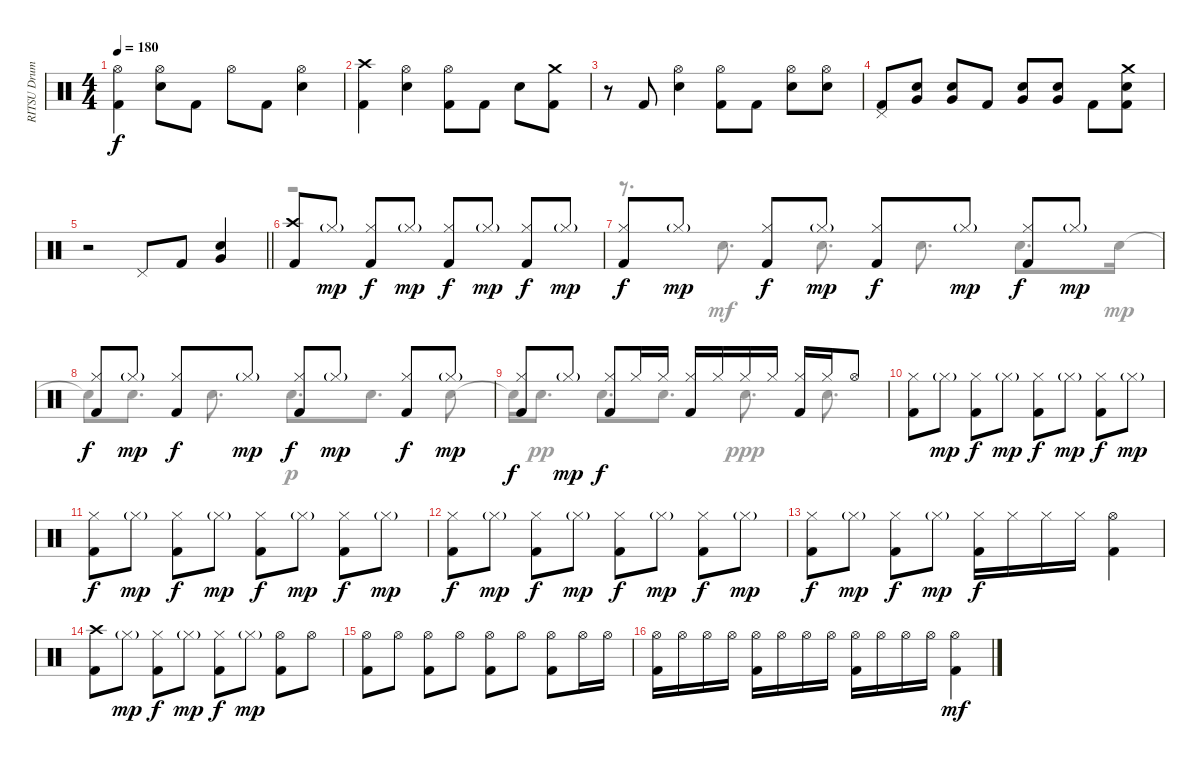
\track ("RITSU Drums" "RITSU Drum") {instrument percussion}
\staff {score}
\articulation defaults
\voice
\ts (4 4)
\tempo 180
\clef neutral
\ks c
("Hi-Hat (open)" "Kick (hit) 2").4{dy f} ("Hi-Hat (open)" "Snare (hit) 2").8 "Kick (hit) 2".8 "Hi-Hat (open)".8 "Kick (hit) 2".8 ("Hi-Hat (open)" "Snare (hit) 2").4 |
("Crash high (hit)" "Kick (hit) 2").4 ("Hi-Hat (open)" "Snare (hit) 2").4 ("Hi-Hat (open)" "Kick (hit) 2").8 "Kick (hit) 2".8 "Snare (hit) 2".8 ("Crash medium (hit)" "Kick (hit) 2").8 |
r.8 "Kick (hit) 2".8 ("Hi-Hat (open)" "Snare (hit) 2").4 ("Hi-Hat (open)" "Kick (hit) 2").8 "Kick (hit) 2".8 ("Hi-Hat (open)" "Snare (hit) 2").8 ("Hi-Hat (open)" "Snare (hit) 2").8 |
("Pedal Hi-Hat (hit)" "Kick (hit) 2").8 ("Snare (hit) 2" "Very Low Tom (hit)").8 ("Snare (hit) 2" "Very Low Tom (hit)").8 "Kick (hit) 2".8 ("Snare (hit) 2" "Very Low Tom (hit)").8 ("Snare (hit) 2" "Very Low Tom (hit)").8 "Kick (hit) 2".8 ("Crash medium (hit)" "Snare (hit) 2" "Kick (hit) 2").8 |
\barLineRight lightlight
r.2 "Pedal Hi-Hat (hit)".8 "Kick (hit) 2".8 ("Snare (hit) 2" "Very Low Tom (hit)").4 |
("Crash high (hit)" "Kick (hit) 2").8 "Hi-Hat (closed)"{g}.8{dy mp} ("Hi-Hat (closed)" "Kick (hit) 2").8{dy f} "Hi-Hat (closed)"{g}.8{dy mp} ("Hi-Hat (closed)" "Kick (hit) 2").8{dy f} "Hi-Hat (closed)"{g}.8{dy mp} ("Hi-Hat (closed)" "Kick (hit) 2").8{dy f} "Hi-Hat (closed)"{g}.8{dy mp} |
("Hi-Hat (closed)" "Kick (hit) 2").8{dy f} "Hi-Hat (closed)"{g}.8{dy mp} ("Hi-Hat (closed)" "Kick (hit) 2").8{dy f} "Hi-Hat (closed)"{g}.8{dy mp} ("Hi-Hat (closed)" "Kick (hit) 2").8{dy f} "Hi-Hat (closed)"{g}.8{dy mp} ("Hi-Hat (closed)" "Kick (hit) 2").8{dy f} "Hi-Hat (closed)"{g}.8{dy mp} |
("Hi-Hat (closed)" "Kick (hit) 2").8{dy f} "Hi-Hat (closed)"{g}.8{dy mp} ("Hi-Hat (closed)" "Kick (hit) 2").8{dy f} "Hi-Hat (closed)"{g}.8{dy mp} ("Hi-Hat (closed)" "Kick (hit) 2").8{dy f} "Hi-Hat (closed)"{g}.8{dy mp} ("Hi-Hat (closed)" "Kick (hit) 2").8{dy f} "Hi-Hat (closed)"{g}.8{dy mp} |
("Hi-Hat (closed)" "Kick (hit) 2").8{dy f} "Hi-Hat (closed)"{g}.8{dy mp} ("Hi-Hat (closed)" "Kick (hit) 2").8{dy f} "Hi-Hat (closed)".16 "Hi-Hat (closed)".16 ("Hi-Hat (closed)" "Kick (hit) 2").16 "Hi-Hat (closed)".16 "Hi-Hat (closed)".16 "Hi-Hat (closed)".16 ("Hi-Hat (closed)" "Kick (hit) 2").16 "Hi-Hat (closed)".16 "Hi-Hat (open)".8 |
("Hi-Hat (closed)" "Kick (hit) 2").8 "Hi-Hat (closed)"{g}.8{dy mp} ("Hi-Hat (closed)" "Kick (hit) 2").8{dy f} "Hi-Hat (closed)"{g}.8{dy mp} ("Hi-Hat (closed)" "Kick (hit) 2").8{dy f} "Hi-Hat (closed)"{g}.8{dy mp} ("Hi-Hat (closed)" "Kick (hit) 2").8{dy f} "Hi-Hat (closed)"{g}.8{dy mp} |
("Hi-Hat (closed)" "Kick (hit) 2").8{dy f} "Hi-Hat (closed)"{g}.8{dy mp} ("Hi-Hat (closed)" "Kick (hit) 2").8{dy f} "Hi-Hat (closed)"{g}.8{dy mp} ("Hi-Hat (closed)" "Kick (hit) 2").8{dy f} "Hi-Hat (closed)"{g}.8{dy mp} ("Hi-Hat (closed)" "Kick (hit) 2").8{dy f} "Hi-Hat (closed)"{g}.8{dy mp} |
("Hi-Hat (closed)" "Kick (hit) 2").8{dy f} "Hi-Hat (closed)"{g}.8{dy mp} ("Hi-Hat (closed)" "Kick (hit) 2").8{dy f} "Hi-Hat (closed)"{g}.8{dy mp} ("Hi-Hat (closed)" "Kick (hit) 2").8{dy f} "Hi-Hat (closed)"{g}.8{dy mp} ("Hi-Hat (closed)" "Kick (hit) 2").8{dy f} "Hi-Hat (closed)"{g}.8{dy mp} |
("Hi-Hat (closed)" "Kick (hit) 2").8{dy f} "Hi-Hat (closed)"{g}.8{dy mp} ("Hi-Hat (closed)" "Kick (hit) 2").8{dy f} "Hi-Hat (closed)"{g}.8{dy mp} ("Hi-Hat (closed)" "Kick (hit) 2").16{dy f} "Hi-Hat (closed)".16 "Hi-Hat (closed)".16 "Hi-Hat (closed)".16 ("Hi-Hat (open)" "Kick (hit) 2").4 |
("Crash high (hit)" "Kick (hit) 2").8 "Hi-Hat (closed)"{g}.8{dy mp} ("Hi-Hat (closed)" "Kick (hit) 2").8{dy f} "Hi-Hat (closed)"{g}.8{dy mp} ("Hi-Hat (closed)" "Kick (hit) 2").8{dy f} "Hi-Hat (closed)"{g}.8{dy mp} ("Hi-Hat (open)" "Kick (hit) 2").8 "Hi-Hat (open)".8 |
("Hi-Hat (open)" "Kick (hit) 2").8 "Hi-Hat (open)".8 ("Hi-Hat (open)" "Kick (hit) 2").8 "Hi-Hat (open)".8 ("Hi-Hat (open)" "Kick (hit) 2").8 "Hi-Hat (open)".8 ("Hi-Hat (open)" "Kick (hit) 2").8 "Hi-Hat (open)".16 "Hi-Hat (open)".16 |
("Hi-Hat (open)" "Kick (hit) 2").16 "Hi-Hat (open)".16 "Hi-Hat (open)".16 "Hi-Hat (open)".16 ("Hi-Hat (open)" "Kick (hit) 2").16 "Hi-Hat (open)".16 "Hi-Hat (open)".16 "Hi-Hat (open)".16 ("Hi-Hat (open)" "Kick (hit) 2").16 "Hi-Hat (open)".16 "Hi-Hat (open)".16 "Hi-Hat (open)".16 ("Hi-Hat (open)" "Kick (hit) 2").4{dy mf}
\voice
\clef neutral
\ottava regular
\simile none
\ks c
|
|
|
|
\barLineRight lightlight
|
r.1 |
r.8{d} "Electric Snare (hit)".8{d} "Electric Snare (hit)".8{d dy mf} "Electric Snare (hit)".8{d} "Electric Snare (hit)".8{d} "Electric Snare (hit)".16{dy mp} |
"Snare (hit)"{t}.8{dy f} "Electric Snare (hit)".8{d dy mp} "Electric Snare (hit)".8{d} "Electric Snare (hit)".8{d dy p} "Electric Snare (hit)".8{d} "Electric Snare (hit)".8 |
"Snare (hit)"{t}.16{dy f} "Electric Snare (hit)".8{d dy pp} "Electric Snare (hit)".8{d} "Electric Snare (hit)".8{d} "Electric Snare (hit)".8{d dy ppp} "Electric Snare (hit)".8{d} |
|
|
|
|
|
|
